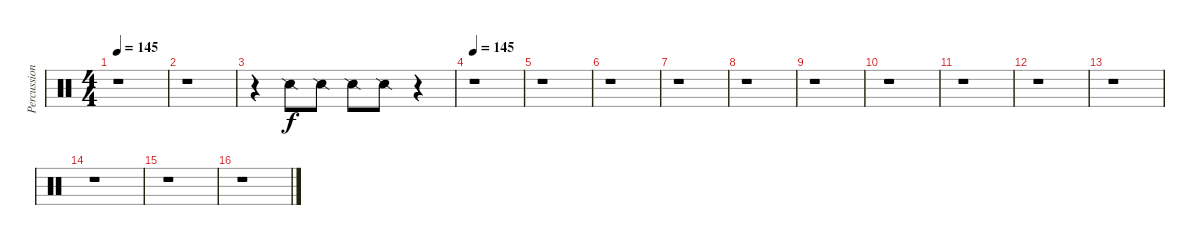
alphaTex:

\track ("Percussion" "Percussion") {instrument percussion}
\staff {score}
\articulation defaults
\ts (4 4)
\tempo 145
\tempo 120
\tempo 145
\clef neutral
\ks c
r.1{dy f} |
r.1 |
r.4 "Snare (side stick) 2".8 "Snare (side stick) 2".8 "Snare (side stick) 2".8 "Snare (side stick) 2".8 r.4 |
\tempo 145
r.1 |
r.1 |
r.1 |
r.1 |
r.1 |
r.1 |
r.1 |
r.1 |
r.1 |
r.1 |
r.1 |
r.1 |
r.1
